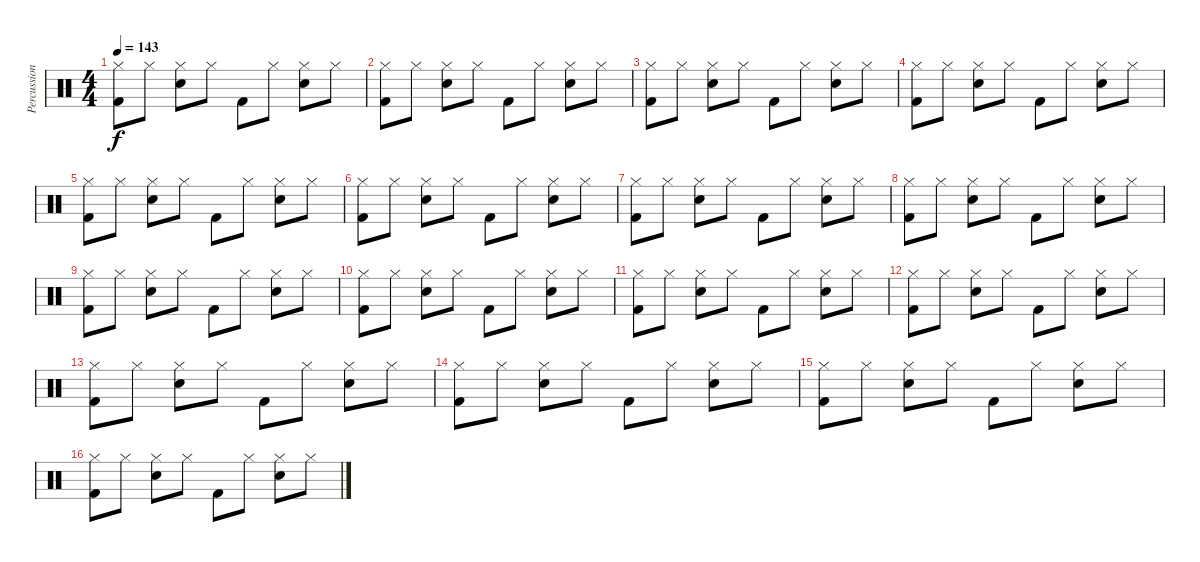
\track ("Percussion" "Percussion") {instrument percussion}
\staff {score}
\articulation defaults
\ts (4 4)
\tempo 143
\clef neutral
\ks c
("Hi-Hat (closed)" "Kick (hit) 2").8{dy f} "Hi-Hat (closed)".8 ("Hi-Hat (closed)" "Electric Snare (hit)").8 "Hi-Hat (closed)".8 "Kick (hit) 2".8 "Hi-Hat (closed)".8 ("Hi-Hat (closed)" "Electric Snare (hit)").8 "Hi-Hat (closed)".8 |
("Hi-Hat (closed)" "Kick (hit) 2").8 "Hi-Hat (closed)".8 ("Hi-Hat (closed)" "Electric Snare (hit)").8 "Hi-Hat (closed)".8 "Kick (hit) 2".8 "Hi-Hat (closed)".8 ("Hi-Hat (closed)" "Electric Snare (hit)").8 "Hi-Hat (closed)".8 |
("Hi-Hat (closed)" "Kick (hit) 2").8 "Hi-Hat (closed)".8 ("Hi-Hat (closed)" "Electric Snare (hit)").8 "Hi-Hat (closed)".8 "Kick (hit) 2".8 "Hi-Hat (closed)".8 ("Hi-Hat (closed)" "Electric Snare (hit)").8 "Hi-Hat (closed)".8 |
("Hi-Hat (closed)" "Kick (hit) 2").8 "Hi-Hat (closed)".8 ("Hi-Hat (closed)" "Electric Snare (hit)").8 "Hi-Hat (closed)".8 "Kick (hit) 2".8 "Hi-Hat (closed)".8 ("Hi-Hat (closed)" "Electric Snare (hit)").8 "Hi-Hat (closed)".8 |
("Hi-Hat (closed)" "Kick (hit) 2").8 "Hi-Hat (closed)".8 ("Hi-Hat (closed)" "Electric Snare (hit)").8 "Hi-Hat (closed)".8 "Kick (hit) 2".8 "Hi-Hat (closed)".8 ("Hi-Hat (closed)" "Electric Snare (hit)").8 "Hi-Hat (closed)".8 |
("Hi-Hat (closed)" "Kick (hit) 2").8 "Hi-Hat (closed)".8 ("Hi-Hat (closed)" "Electric Snare (hit)").8 "Hi-Hat (closed)".8 "Kick (hit) 2".8 "Hi-Hat (closed)".8 ("Hi-Hat (closed)" "Electric Snare (hit)").8 "Hi-Hat (closed)".8 |
("Hi-Hat (closed)" "Kick (hit) 2").8 "Hi-Hat (closed)".8 ("Hi-Hat (closed)" "Electric Snare (hit)").8 "Hi-Hat (closed)".8 "Kick (hit) 2".8 "Hi-Hat (closed)".8 ("Hi-Hat (closed)" "Electric Snare (hit)").8 "Hi-Hat (closed)".8 |
("Hi-Hat (closed)" "Kick (hit) 2").8 "Hi-Hat (closed)".8 ("Hi-Hat (closed)" "Electric Snare (hit)").8 "Hi-Hat (closed)".8 "Kick (hit) 2".8 "Hi-Hat (closed)".8 ("Hi-Hat (closed)" "Electric Snare (hit)").8 "Hi-Hat (closed)".8 |
("Hi-Hat (closed)" "Kick (hit) 2").8 "Hi-Hat (closed)".8 ("Hi-Hat (closed)" "Electric Snare (hit)").8 "Hi-Hat (closed)".8 "Kick (hit) 2".8 "Hi-Hat (closed)".8 ("Hi-Hat (closed)" "Electric Snare (hit)").8 "Hi-Hat (closed)".8 |
("Hi-Hat (closed)" "Kick (hit) 2").8 "Hi-Hat (closed)".8 ("Hi-Hat (closed)" "Electric Snare (hit)").8 "Hi-Hat (closed)".8 "Kick (hit) 2".8 "Hi-Hat (closed)".8 ("Hi-Hat (closed)" "Electric Snare (hit)").8 "Hi-Hat (closed)".8 |
("Hi-Hat (closed)" "Kick (hit) 2").8 "Hi-Hat (closed)".8 ("Hi-Hat (closed)" "Electric Snare (hit)").8 "Hi-Hat (closed)".8 "Kick (hit) 2".8 "Hi-Hat (closed)".8 ("Hi-Hat (closed)" "Electric Snare (hit)").8 "Hi-Hat (closed)".8 |
("Hi-Hat (closed)" "Kick (hit) 2").8 "Hi-Hat (closed)".8 ("Hi-Hat (closed)" "Electric Snare (hit)").8 "Hi-Hat (closed)".8 "Kick (hit) 2".8 "Hi-Hat (closed)".8 ("Hi-Hat (closed)" "Electric Snare (hit)").8 "Hi-Hat (closed)".8 |
("Hi-Hat (closed)" "Kick (hit) 2").8 "Hi-Hat (closed)".8 ("Hi-Hat (closed)" "Electric Snare (hit)").8 "Hi-Hat (closed)".8 "Kick (hit) 2".8 "Hi-Hat (closed)".8 ("Hi-Hat (closed)" "Electric Snare (hit)").8 "Hi-Hat (closed)".8 |
("Hi-Hat (closed)" "Kick (hit) 2").8 "Hi-Hat (closed)".8 ("Hi-Hat (closed)" "Electric Snare (hit)").8 "Hi-Hat (closed)".8 "Kick (hit) 2".8 "Hi-Hat (closed)".8 ("Hi-Hat (closed)" "Electric Snare (hit)").8 "Hi-Hat (closed)".8 |
("Hi-Hat (closed)" "Kick (hit) 2").8 "Hi-Hat (closed)".8 ("Hi-Hat (closed)" "Electric Snare (hit)").8 "Hi-Hat (closed)".8 "Kick (hit) 2".8 "Hi-Hat (closed)".8 ("Hi-Hat (closed)" "Electric Snare (hit)").8 "Hi-Hat (closed)".8 |
("Hi-Hat (closed)" "Kick (hit) 2").8 "Hi-Hat (closed)".8 ("Hi-Hat (closed)" "Electric Snare (hit)").8 "Hi-Hat (closed)".8 "Kick (hit) 2".8 "Hi-Hat (closed)".8 ("Hi-Hat (closed)" "Electric Snare (hit)").8 "Hi-Hat (closed)".8
